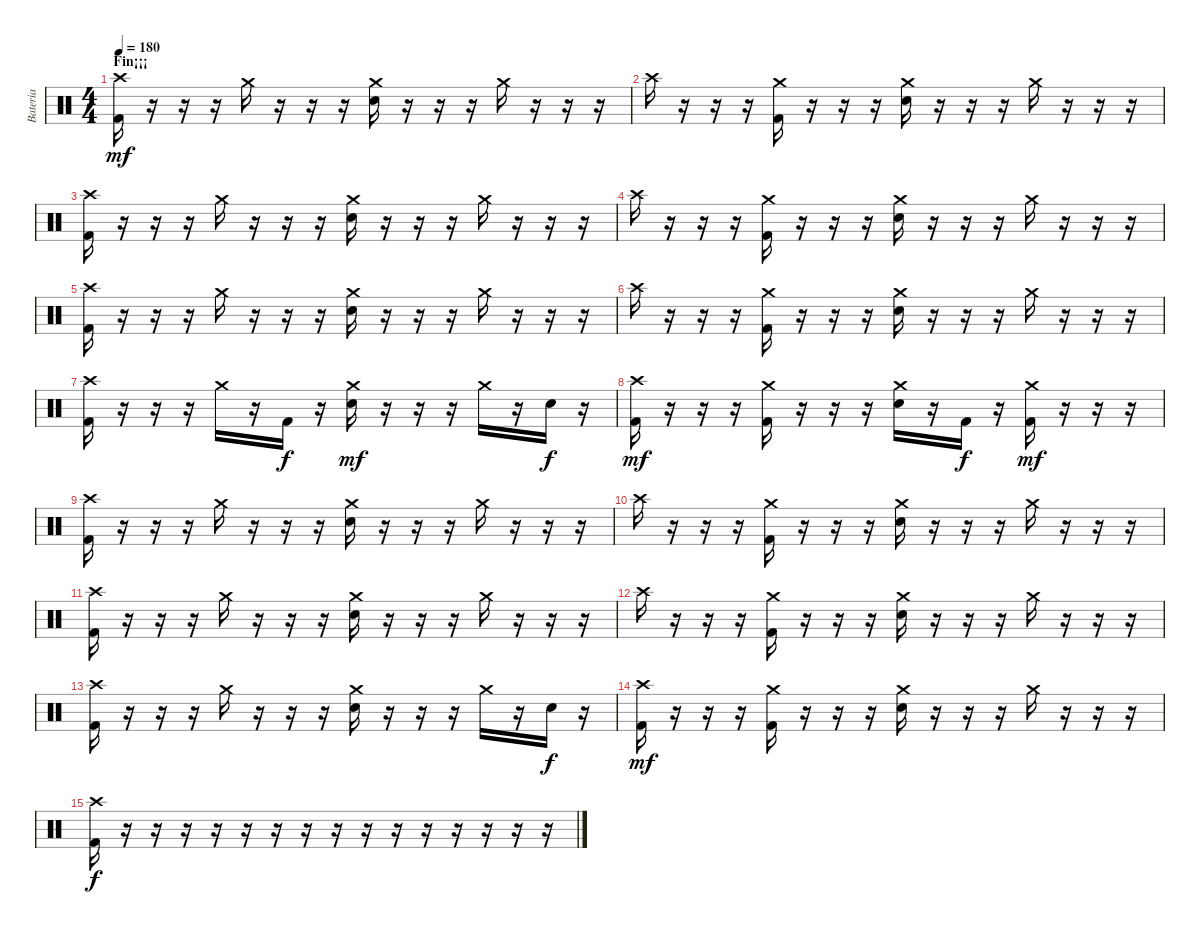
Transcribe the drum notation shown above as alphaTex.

\track ("Bateria" "Bateria") {instrument percussion}
\staff {score}
\articulation defaults
\ts (4 4)
\section ("" "Fin¡¡¡")
\tempo 180
\clef neutral
\ks c
("Crash high (hit)" "Kick (hit) 2").16{dy mf} r.16 r.16 r.16 "Crash medium (hit)".16 r.16 r.16 r.16 ("Crash medium (hit)" "Snare (hit) 2").16 r.16 r.16 r.16 "Crash medium (hit)".16 r.16 r.16 r.16 |
"Crash high (hit)".16 r.16 r.16 r.16 ("Crash medium (hit)" "Kick (hit) 2").16 r.16 r.16 r.16 ("Crash medium (hit)" "Snare (hit) 2").16 r.16 r.16 r.16 "Crash medium (hit)".16 r.16 r.16 r.16 |
("Crash high (hit)" "Kick (hit) 2").16 r.16 r.16 r.16 "Crash medium (hit)".16 r.16 r.16 r.16 ("Crash medium (hit)" "Snare (hit) 2").16 r.16 r.16 r.16 "Crash medium (hit)".16 r.16 r.16 r.16 |
"Crash high (hit)".16 r.16 r.16 r.16 ("Crash medium (hit)" "Kick (hit) 2").16 r.16 r.16 r.16 ("Crash medium (hit)" "Snare (hit) 2").16 r.16 r.16 r.16 "Crash medium (hit)".16 r.16 r.16 r.16 |
("Crash high (hit)" "Kick (hit) 2").16 r.16 r.16 r.16 "Crash medium (hit)".16 r.16 r.16 r.16 ("Crash medium (hit)" "Snare (hit) 2").16 r.16 r.16 r.16 "Crash medium (hit)".16 r.16 r.16 r.16 |
"Crash high (hit)".16 r.16 r.16 r.16 ("Crash medium (hit)" "Kick (hit) 2").16 r.16 r.16 r.16 ("Crash medium (hit)" "Snare (hit) 2").16 r.16 r.16 r.16 "Crash medium (hit)".16 r.16 r.16 r.16 |
("Crash high (hit)" "Kick (hit) 2").16 r.16 r.16 r.16 "Crash medium (hit)".16 r.16 "Kick (hit) 2".16{dy f} r.16 ("Crash medium (hit)" "Snare (hit) 2").16{dy mf} r.16 r.16 r.16 "Crash medium (hit)".16 r.16 "Snare (hit) 2".16{dy f} r.16 |
("Crash high (hit)" "Kick (hit) 2").16{dy mf} r.16 r.16 r.16 ("Crash medium (hit)" "Kick (hit) 2").16 r.16 r.16 r.16 ("Crash medium (hit)" "Snare (hit) 2").16 r.16 "Kick (hit) 2".16{dy f} r.16 ("Crash medium (hit)" "Kick (hit) 2").16{dy mf} r.16 r.16 r.16 |
("Crash high (hit)" "Kick (hit) 2").16 r.16 r.16 r.16 "Crash medium (hit)".16 r.16 r.16 r.16 ("Crash medium (hit)" "Snare (hit) 2").16 r.16 r.16 r.16 "Crash medium (hit)".16 r.16 r.16 r.16 |
"Crash high (hit)".16 r.16 r.16 r.16 ("Crash medium (hit)" "Kick (hit) 2").16 r.16 r.16 r.16 ("Crash medium (hit)" "Snare (hit) 2").16 r.16 r.16 r.16 "Crash medium (hit)".16 r.16 r.16 r.16 |
("Crash high (hit)" "Kick (hit) 2").16 r.16 r.16 r.16 "Crash medium (hit)".16 r.16 r.16 r.16 ("Crash medium (hit)" "Snare (hit) 2").16 r.16 r.16 r.16 "Crash medium (hit)".16 r.16 r.16 r.16 |
"Crash high (hit)".16 r.16 r.16 r.16 ("Crash medium (hit)" "Kick (hit) 2").16 r.16 r.16 r.16 ("Crash medium (hit)" "Snare (hit) 2").16 r.16 r.16 r.16 "Crash medium (hit)".16 r.16 r.16 r.16 |
("Crash high (hit)" "Kick (hit) 2").16 r.16 r.16 r.16 "Crash medium (hit)".16 r.16 r.16 r.16 ("Crash medium (hit)" "Snare (hit) 2").16 r.16 r.16 r.16 "Crash medium (hit)".16 r.16 "Snare (hit) 2".16{dy f} r.16 |
("Crash high (hit)" "Kick (hit) 2").16{dy mf} r.16 r.16 r.16 ("Crash medium (hit)" "Kick (hit) 2").16 r.16 r.16 r.16 ("Crash medium (hit)" "Snare (hit) 2").16 r.16 r.16 r.16 "Crash medium (hit)".16 r.16 r.16 r.16 |
("Crash high (hit)" "Kick (hit) 2").16{dy f} r.16 r.16 r.16 r.16 r.16 r.16 r.16 r.16 r.16 r.16 r.16 r.16 r.16 r.16 r.16
